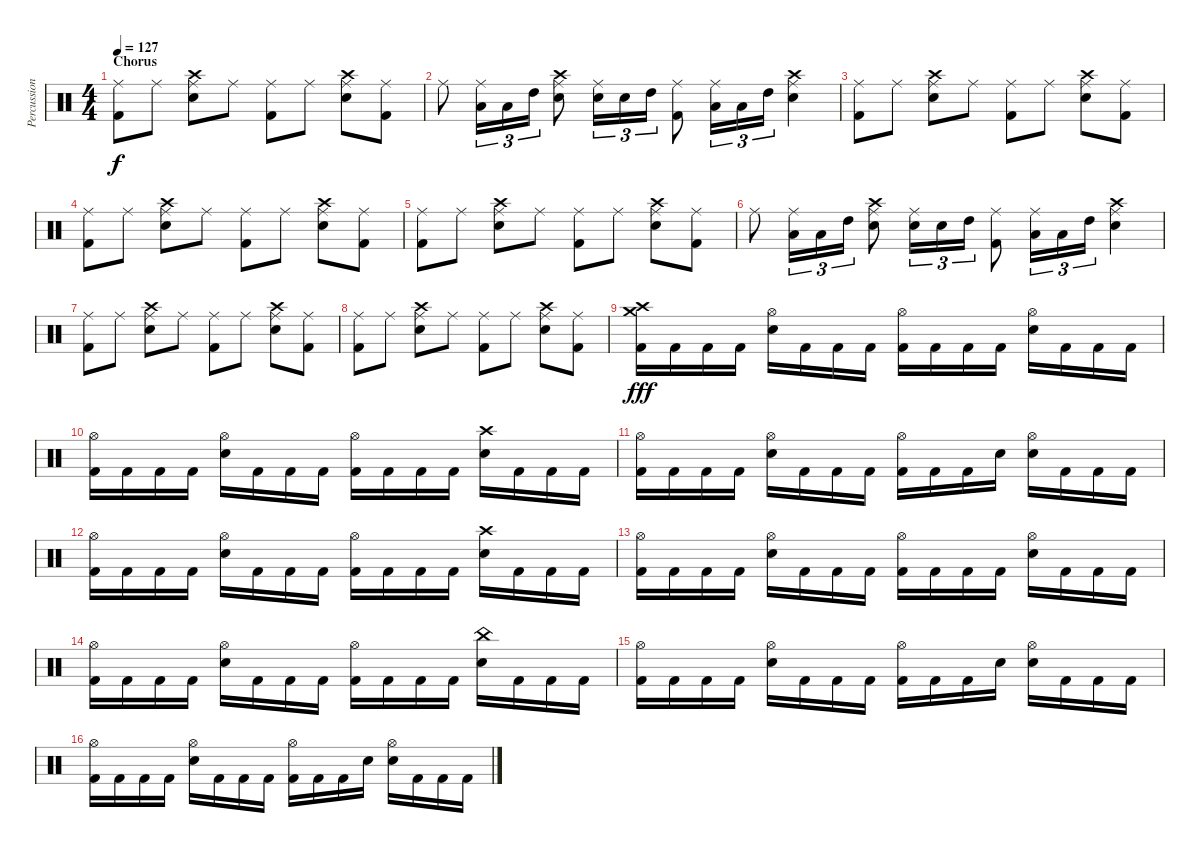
\track ("Percussion" "Percussion") {instrument percussion}
\staff {score}
\articulation defaults
\ts (4 4)
\section ("" "Chorus")
\tempo 127
\clef neutral
\ks c
("Ride (middle)" "Kick (hit) 2").8{dy f} "Ride (middle)".8 ("Crash high (hit)" "Ride (middle)" "Snare (hit) 2").8 "Ride (middle)".8 ("Ride (middle)" "Kick (hit) 2").8 "Ride (middle)".8 ("Crash high (hit)" "Ride (middle)" "Snare (hit) 2").8 ("Ride (middle)" "Kick (hit) 2").8 |
"Ride (middle)".8 ("Ride (middle)" "Low Tom (hit)").16{tu (3 2)} "Low Tom (hit)".16{tu (3 2)} "High Tom (hit)".16{tu (3 2)} ("Crash high (hit)" "Ride (middle)" "Snare (hit) 2").8 ("Ride (middle)" "Snare (hit) 2").16{tu (3 2)} "Snare (hit) 2".16{tu (3 2)} "High Tom (hit)".16{tu (3 2)} ("Ride (middle)" "Kick (hit) 2").8 ("Ride (middle)" "Low Tom (hit)").16{tu (3 2)} "Low Tom (hit)".16{tu (3 2)} "High Tom (hit)".16{tu (3 2)} ("Crash high (hit)" "Ride (middle)" "Snare (hit) 2").4 |
("Ride (middle)" "Kick (hit) 2").8 "Ride (middle)".8 ("Crash high (hit)" "Ride (middle)" "Snare (hit) 2").8 "Ride (middle)".8 ("Ride (middle)" "Kick (hit) 2").8 "Ride (middle)".8 ("Crash high (hit)" "Ride (middle)" "Snare (hit) 2").8 ("Ride (middle)" "Kick (hit) 2").8 |
("Ride (middle)" "Kick (hit) 2").8 "Ride (middle)".8 ("Crash high (hit)" "Ride (middle)" "Snare (hit) 2").8 "Ride (middle)".8 ("Ride (middle)" "Kick (hit) 2").8 "Ride (middle)".8 ("Crash high (hit)" "Ride (middle)" "Snare (hit) 2").8 ("Ride (middle)" "Kick (hit) 2").8 |
("Ride (middle)" "Kick (hit) 2").8 "Ride (middle)".8 ("Crash high (hit)" "Ride (middle)" "Snare (hit) 2").8 "Ride (middle)".8 ("Ride (middle)" "Kick (hit) 2").8 "Ride (middle)".8 ("Crash high (hit)" "Ride (middle)" "Snare (hit) 2").8 ("Ride (middle)" "Kick (hit) 2").8 |
"Ride (middle)".8 ("Ride (middle)" "Low Tom (hit)").16{tu (3 2)} "Low Tom (hit)".16{tu (3 2)} "High Tom (hit)".16{tu (3 2)} ("Crash high (hit)" "Ride (middle)" "Snare (hit) 2").8 ("Ride (middle)" "Snare (hit) 2").16{tu (3 2)} "Snare (hit) 2".16{tu (3 2)} "High Tom (hit)".16{tu (3 2)} ("Ride (middle)" "Kick (hit) 2").8 ("Ride (middle)" "Low Tom (hit)").16{tu (3 2)} "Low Tom (hit)".16{tu (3 2)} "High Tom (hit)".16{tu (3 2)} ("Crash high (hit)" "Ride (middle)" "Snare (hit) 2").4 |
("Ride (middle)" "Kick (hit) 2").8 "Ride (middle)".8 ("Crash high (hit)" "Ride (middle)" "Snare (hit) 2").8 "Ride (middle)".8 ("Ride (middle)" "Kick (hit) 2").8 "Ride (middle)".8 ("Crash high (hit)" "Ride (middle)" "Snare (hit) 2").8 ("Ride (middle)" "Kick (hit) 2").8 |
("Ride (middle)" "Kick (hit) 2").8 "Ride (middle)".8 ("Crash high (hit)" "Ride (middle)" "Snare (hit) 2").8 "Ride (middle)".8 ("Ride (middle)" "Kick (hit) 2").8 "Ride (middle)".8 ("Crash high (hit)" "Ride (middle)" "Snare (hit) 2").8 ("Ride (middle)" "Kick (hit) 2").8 |
("Crash high (hit)" "Crash medium (hit)" "Kick (hit) 2").16{dy fff} "Kick (hit) 2".16 "Kick (hit) 2".16 "Kick (hit) 2".16 ("Hi-Hat (open)" "Snare (hit) 2").16 "Kick (hit) 2".16 "Kick (hit) 2".16 "Kick (hit) 2".16 ("Hi-Hat (open)" "Kick (hit) 2").16 "Kick (hit) 2".16 "Kick (hit) 2".16 "Kick (hit) 2".16 ("Hi-Hat (open)" "Snare (hit) 2").16 "Kick (hit) 2".16 "Kick (hit) 2".16 "Kick (hit) 2".16 |
("Hi-Hat (open)" "Kick (hit) 2").16 "Kick (hit) 2".16 "Kick (hit) 2".16 "Kick (hit) 2".16 ("Hi-Hat (open)" "Snare (hit) 2").16 "Kick (hit) 2".16 "Kick (hit) 2".16 "Kick (hit) 2".16 ("Hi-Hat (open)" "Kick (hit) 2").16 "Kick (hit) 2".16 "Kick (hit) 2".16 "Kick (hit) 2".16 ("Crash high (hit)" "Snare (hit) 2").16 "Kick (hit) 2".16 "Kick (hit) 2".16 "Kick (hit) 2".16 |
("Hi-Hat (open)" "Kick (hit) 2").16 "Kick (hit) 2".16 "Kick (hit) 2".16 "Kick (hit) 2".16 ("Hi-Hat (open)" "Snare (hit) 2").16 "Kick (hit) 2".16 "Kick (hit) 2".16 "Kick (hit) 2".16 ("Hi-Hat (open)" "Kick (hit) 2").16 "Kick (hit) 2".16 "Kick (hit) 2".16 "Snare (hit) 2".16 ("Hi-Hat (open)" "Snare (hit) 2").16 "Kick (hit) 2".16 "Kick (hit) 2".16 "Kick (hit) 2".16 |
("Hi-Hat (open)" "Kick (hit) 2").16 "Kick (hit) 2".16 "Kick (hit) 2".16 "Kick (hit) 2".16 ("Hi-Hat (open)" "Snare (hit) 2").16 "Kick (hit) 2".16 "Kick (hit) 2".16 "Kick (hit) 2".16 ("Hi-Hat (open)" "Kick (hit) 2").16 "Kick (hit) 2".16 "Kick (hit) 2".16 "Kick (hit) 2".16 ("Crash high (hit)" "Snare (hit) 2").16 "Kick (hit) 2".16 "Kick (hit) 2".16 "Kick (hit) 2".16 |
("Hi-Hat (open)" "Kick (hit) 2").16 "Kick (hit) 2".16 "Kick (hit) 2".16 "Kick (hit) 2".16 ("Hi-Hat (open)" "Snare (hit) 2").16 "Kick (hit) 2".16 "Kick (hit) 2".16 "Kick (hit) 2".16 ("Hi-Hat (open)" "Kick (hit) 2").16 "Kick (hit) 2".16 "Kick (hit) 2".16 "Kick (hit) 2".16 ("Hi-Hat (open)" "Snare (hit) 2").16 "Kick (hit) 2".16 "Kick (hit) 2".16 "Kick (hit) 2".16 |
("Hi-Hat (open)" "Kick (hit) 2").16 "Kick (hit) 2".16 "Kick (hit) 2".16 "Kick (hit) 2".16 ("Hi-Hat (open)" "Snare (hit) 2").16 "Kick (hit) 2".16 "Kick (hit) 2".16 "Kick (hit) 2".16 ("Hi-Hat (open)" "Kick (hit) 2").16 "Kick (hit) 2".16 "Kick (hit) 2".16 "Kick (hit) 2".16 ("China (hit)" "Snare (hit) 2").16 "Kick (hit) 2".16 "Kick (hit) 2".16 "Kick (hit) 2".16 |
("Hi-Hat (open)" "Kick (hit) 2").16 "Kick (hit) 2".16 "Kick (hit) 2".16 "Kick (hit) 2".16 ("Hi-Hat (open)" "Snare (hit) 2").16 "Kick (hit) 2".16 "Kick (hit) 2".16 "Kick (hit) 2".16 ("Hi-Hat (open)" "Kick (hit) 2").16 "Kick (hit) 2".16 "Kick (hit) 2".16 "Snare (hit) 2".16 ("Hi-Hat (open)" "Snare (hit) 2").16 "Kick (hit) 2".16 "Kick (hit) 2".16 "Kick (hit) 2".16 |
("Hi-Hat (open)" "Kick (hit) 2").16 "Kick (hit) 2".16 "Kick (hit) 2".16 "Kick (hit) 2".16 ("Hi-Hat (open)" "Snare (hit) 2").16 "Kick (hit) 2".16 "Kick (hit) 2".16 "Kick (hit) 2".16 ("Hi-Hat (open)" "Kick (hit) 2").16 "Kick (hit) 2".16 "Kick (hit) 2".16 "Snare (hit) 2".16 ("Hi-Hat (open)" "Snare (hit) 2").16 "Kick (hit) 2".16 "Kick (hit) 2".16 "Kick (hit) 2".16
